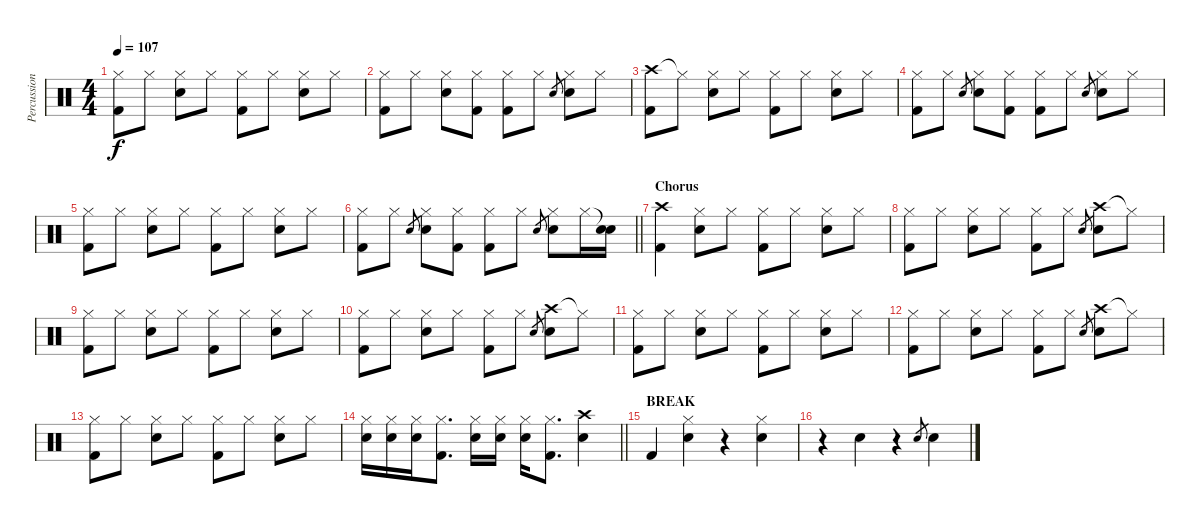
\track ("Percussion" "Percussion") {instrument percussion}
\staff {score}
\articulation defaults
\ts (4 4)
\tempo 107
\clef neutral
\ks c
("Hi-Hat (closed)" "Kick (hit) 2").8{dy f} "Hi-Hat (closed)".8 ("Hi-Hat (closed)" "Electric Snare (hit)").8 "Hi-Hat (closed)".8 ("Hi-Hat (closed)" "Kick (hit) 2").8 "Hi-Hat (closed)".8 ("Hi-Hat (closed)" "Electric Snare (hit)").8 "Hi-Hat (closed)".8 |
("Hi-Hat (closed)" "Kick (hit) 2").8 "Hi-Hat (closed)".8 ("Hi-Hat (closed)" "Electric Snare (hit)").8 ("Hi-Hat (closed)" "Kick (hit) 2").8 ("Hi-Hat (closed)" "Kick (hit) 2").8 "Hi-Hat (closed)".8 "Electric Snare (hit)".8{gr} ("Hi-Hat (closed)" "Electric Snare (hit)").8 "Hi-Hat (closed)".8 |
("Crash high (hit)" "Kick (hit) 2").8 "Hi-Hat (closed)"{t}.8 ("Hi-Hat (closed)" "Electric Snare (hit)").8 "Hi-Hat (closed)".8 ("Hi-Hat (closed)" "Kick (hit) 2").8 "Hi-Hat (closed)".8 ("Hi-Hat (closed)" "Electric Snare (hit)").8 "Hi-Hat (closed)".8 |
("Hi-Hat (closed)" "Kick (hit) 2").8 "Hi-Hat (closed)".8 "Electric Snare (hit)".8{gr} ("Hi-Hat (closed)" "Electric Snare (hit)").8 ("Hi-Hat (closed)" "Kick (hit) 2").8 ("Hi-Hat (closed)" "Kick (hit) 2").8 "Hi-Hat (closed)".8 "Electric Snare (hit)".8{gr} ("Hi-Hat (closed)" "Electric Snare (hit)").8 "Hi-Hat (closed)".8 |
("Hi-Hat (closed)" "Kick (hit) 2").8 "Hi-Hat (closed)".8 ("Hi-Hat (closed)" "Electric Snare (hit)").8 "Hi-Hat (closed)".8 ("Hi-Hat (closed)" "Kick (hit) 2").8 "Hi-Hat (closed)".8 ("Hi-Hat (closed)" "Electric Snare (hit)").8 "Hi-Hat (closed)".8 |
\barLineRight lightlight
("Hi-Hat (closed)" "Kick (hit) 2").8 "Hi-Hat (closed)".8 "Electric Snare (hit)".8{gr} ("Hi-Hat (closed)" "Electric Snare (hit)").8 ("Hi-Hat (closed)" "Kick (hit) 2").8 ("Hi-Hat (closed)" "Kick (hit) 2").8 "Hi-Hat (closed)".8 "Electric Snare (hit)".8{gr} ("Hi-Hat (closed)" "Electric Snare (hit)").8 "Hi-Hat (closed)".16 ("Snare (hit)"{t} "Electric Snare (hit)").16 |
\section ("" "Chorus")
("Crash high (hit)" "Kick (hit) 2").4 ("Hi-Hat (closed)" "Electric Snare (hit)").8 "Hi-Hat (closed)".8 ("Hi-Hat (closed)" "Kick (hit) 2").8 "Hi-Hat (closed)".8 ("Hi-Hat (closed)" "Electric Snare (hit)").8 "Hi-Hat (closed)".8 |
("Hi-Hat (closed)" "Kick (hit) 2").8 "Hi-Hat (closed)".8 ("Hi-Hat (closed)" "Electric Snare (hit)").8 "Hi-Hat (closed)".8 ("Hi-Hat (closed)" "Kick (hit) 2").8 "Hi-Hat (closed)".8 "Electric Snare (hit)".8{gr} ("Crash high (hit)" "Electric Snare (hit)").8 "Hi-Hat (closed)"{t}.8 |
("Hi-Hat (closed)" "Kick (hit) 2").8 "Hi-Hat (closed)".8 ("Hi-Hat (closed)" "Electric Snare (hit)").8 "Hi-Hat (closed)".8 ("Hi-Hat (closed)" "Kick (hit) 2").8 "Hi-Hat (closed)".8 ("Hi-Hat (closed)" "Electric Snare (hit)").8 "Hi-Hat (closed)".8 |
("Hi-Hat (closed)" "Kick (hit) 2").8 "Hi-Hat (closed)".8 ("Hi-Hat (closed)" "Electric Snare (hit)").8 "Hi-Hat (closed)".8 ("Hi-Hat (closed)" "Kick (hit) 2").8 "Hi-Hat (closed)".8 "Electric Snare (hit)".8{gr} ("Crash high (hit)" "Electric Snare (hit)").8 "Hi-Hat (closed)"{t}.8 |
("Hi-Hat (closed)" "Kick (hit) 2").8 "Hi-Hat (closed)".8 ("Hi-Hat (closed)" "Electric Snare (hit)").8 "Hi-Hat (closed)".8 ("Hi-Hat (closed)" "Kick (hit) 2").8 "Hi-Hat (closed)".8 ("Hi-Hat (closed)" "Electric Snare (hit)").8 "Hi-Hat (closed)".8 |
("Hi-Hat (closed)" "Kick (hit) 2").8 "Hi-Hat (closed)".8 ("Hi-Hat (closed)" "Electric Snare (hit)").8 "Hi-Hat (closed)".8 ("Hi-Hat (closed)" "Kick (hit) 2").8 "Hi-Hat (closed)".8 "Electric Snare (hit)".8{gr} ("Crash high (hit)" "Electric Snare (hit)").8 "Hi-Hat (closed)"{t}.8 |
("Hi-Hat (closed)" "Kick (hit) 2").8 "Hi-Hat (closed)".8 ("Hi-Hat (closed)" "Electric Snare (hit)").8 "Hi-Hat (closed)".8 ("Hi-Hat (closed)" "Kick (hit) 2").8 "Hi-Hat (closed)".8 ("Hi-Hat (closed)" "Electric Snare (hit)").8 "Hi-Hat (closed)".8 |
\barLineRight lightlight
("Hi-Hat (closed)" "Electric Snare (hit)").16 ("Hi-Hat (closed)" "Electric Snare (hit)").16 ("Hi-Hat (closed)" "Electric Snare (hit)").16 ("Hi-Hat (closed)" "Kick (hit) 2").8{d} ("Hi-Hat (closed)" "Electric Snare (hit)").16 ("Hi-Hat (closed)" "Electric Snare (hit)").16 ("Hi-Hat (closed)" "Electric Snare (hit)").16 ("Hi-Hat (closed)" "Kick (hit) 2").8{d} ("Crash high (hit)" "Electric Snare (hit)").4 |
\section ("" "BREAK")
"Kick (hit) 2".4 ("Hi-Hat (closed)" "Electric Snare (hit)").4 r.4 ("Hi-Hat (closed)" "Electric Snare (hit)").4 |
r.4 "Electric Snare (hit)".4 r.4 "Electric Snare (hit)".8{gr} "Electric Snare (hit)".4
